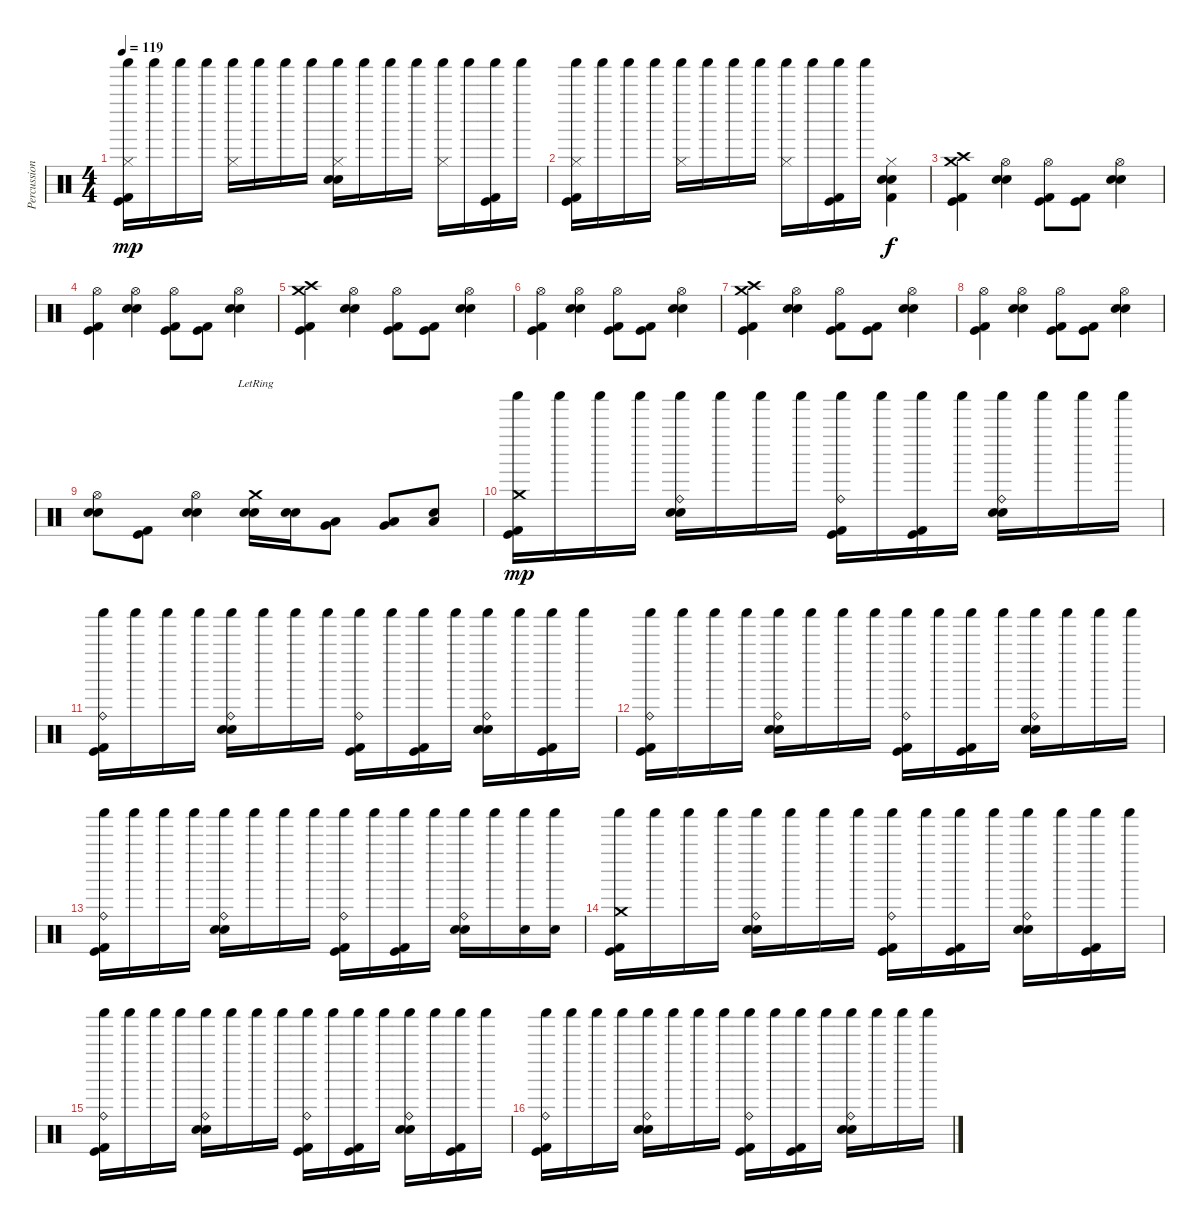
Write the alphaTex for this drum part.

\track ("Percussion" "Percussion") {instrument percussion}
\staff {score}
\articulation defaults
\ts (4 4)
\tempo 119
\clef neutral
\ks c
("Hi-Hat (closed)" "Kick (hit)" "Kick (hit) 2" "Shaker (hit)").16{dy mp} "Shaker (hit)".16 "Shaker (hit)".16 "Shaker (hit)".16 ("Hi-Hat (closed)" "Shaker (hit)").16 "Shaker (hit)".16 "Shaker (hit)".16 "Shaker (hit)".16 ("Hi-Hat (closed)" "Electric Snare (hit)" "Metronome (bell)" "Shaker (hit)").16 "Shaker (hit)".16 "Shaker (hit)".16 "Shaker (hit)".16 ("Hi-Hat (closed)" "Shaker (hit)").16 "Shaker (hit)".16 ("Kick (hit)" "Kick (hit) 2" "Shaker (hit)").16 "Shaker (hit)".16 |
("Hi-Hat (closed)" "Kick (hit)" "Kick (hit) 2" "Shaker (hit)").16 "Shaker (hit)".16 "Shaker (hit)".16 "Shaker (hit)".16 ("Hi-Hat (closed)" "Shaker (hit)").16 "Shaker (hit)".16 "Shaker (hit)".16 "Shaker (hit)".16 ("Hi-Hat (closed)" "Shaker (hit)").16 "Shaker (hit)".16 ("Kick (hit)" "Kick (hit) 2" "Shaker (hit)").16 "Shaker (hit)".16 ("Hi-Hat (closed)" "Electric Snare (hit)" "Metronome (bell)" "Kick (hit) 2").4{dy f} |
("Crash medium (hit)" "Crash high (hit)" "Kick (hit)" "Kick (hit) 2").4 ("Hi-Hat (open)" "Electric Snare (hit)" "Metronome (bell)").4 ("Hi-Hat (open)" "Kick (hit)" "Kick (hit) 2").8 ("Kick (hit)" "Kick (hit) 2").8 ("Hi-Hat (open)" "Electric Snare (hit)" "Metronome (bell)").4 |
("Hi-Hat (open)" "Kick (hit)" "Kick (hit) 2").4 ("Hi-Hat (open)" "Electric Snare (hit)" "Metronome (bell)").4 ("Hi-Hat (open)" "Kick (hit)" "Kick (hit) 2").8 ("Kick (hit)" "Kick (hit) 2").8 ("Hi-Hat (open)" "Electric Snare (hit)" "Metronome (bell)").4 |
("Crash medium (hit)" "Crash high (hit)" "Kick (hit)" "Kick (hit) 2").4 ("Hi-Hat (open)" "Electric Snare (hit)" "Metronome (bell)").4 ("Hi-Hat (open)" "Kick (hit)" "Kick (hit) 2").8 ("Kick (hit)" "Kick (hit) 2").8 ("Hi-Hat (open)" "Electric Snare (hit)" "Metronome (bell)").4 |
("Hi-Hat (open)" "Kick (hit)" "Kick (hit) 2").4 ("Hi-Hat (open)" "Electric Snare (hit)" "Metronome (bell)").4 ("Hi-Hat (open)" "Kick (hit)" "Kick (hit) 2").8 ("Kick (hit)" "Kick (hit) 2").8 ("Hi-Hat (open)" "Electric Snare (hit)" "Metronome (bell)").4 |
("Crash medium (hit)" "Crash high (hit)" "Kick (hit)" "Kick (hit) 2").4 ("Hi-Hat (open)" "Electric Snare (hit)" "Metronome (bell)").4 ("Hi-Hat (open)" "Kick (hit)" "Kick (hit) 2").8 ("Kick (hit)" "Kick (hit) 2").8 ("Hi-Hat (open)" "Electric Snare (hit)" "Metronome (bell)").4 |
("Hi-Hat (open)" "Kick (hit)" "Kick (hit) 2").4 ("Hi-Hat (open)" "Electric Snare (hit)" "Metronome (bell)").4 ("Hi-Hat (open)" "Kick (hit)" "Kick (hit) 2").8 ("Kick (hit)" "Kick (hit) 2").8 ("Hi-Hat (open)" "Electric Snare (hit)" "Metronome (bell)").4 |
("Hi-Hat (open)" "Electric Snare (hit)" "Metronome (bell)").8 ("Kick (hit)" "Kick (hit) 2").8 ("Hi-Hat (open)" "Electric Snare (hit)" "Metronome (bell)").4 ("Crash medium (hit)"{lr} "Electric Snare (hit)" "Metronome (bell)").16 ("Electric Snare (hit)" "Metronome (bell)").16 ("Low Tom (hit)" "Very Low Tom (hit)").8 ("Very Low Tom (hit)" "Low Floor Tom (hit)").8 ("Low Floor Tom (hit)" "Snare (hit)").8 |
("Crash medium (hit)" "Kick (hit)" "Kick (hit) 2" "Shaker (hit)").16{dy mp} "Shaker (hit)".16 "Shaker (hit)".16 "Shaker (hit)".16 ("Ride (bell)" "Electric Snare (hit)" "Metronome (bell)" "Shaker (hit)").16 "Shaker (hit)".16 "Shaker (hit)".16 "Shaker (hit)".16 ("Ride (bell)" "Kick (hit)" "Kick (hit) 2" "Shaker (hit)").16 "Shaker (hit)".16 ("Kick (hit)" "Kick (hit) 2" "Shaker (hit)").16 "Shaker (hit)".16 ("Ride (bell)" "Electric Snare (hit)" "Metronome (bell)" "Shaker (hit)").16 "Shaker (hit)".16 "Shaker (hit)".16 "Shaker (hit)".16 |
("Ride (bell)" "Kick (hit)" "Kick (hit) 2" "Shaker (hit)").16 "Shaker (hit)".16 "Shaker (hit)".16 "Shaker (hit)".16 ("Ride (bell)" "Electric Snare (hit)" "Metronome (bell)" "Shaker (hit)").16 "Shaker (hit)".16 "Shaker (hit)".16 "Shaker (hit)".16 ("Ride (bell)" "Kick (hit)" "Kick (hit) 2" "Shaker (hit)").16 "Shaker (hit)".16 ("Kick (hit)" "Kick (hit) 2" "Shaker (hit)").16 "Shaker (hit)".16 ("Ride (bell)" "Electric Snare (hit)" "Metronome (bell)" "Shaker (hit)").16 "Shaker (hit)".16 ("Kick (hit)" "Kick (hit) 2" "Shaker (hit)").16 "Shaker (hit)".16 |
("Ride (bell)" "Kick (hit)" "Kick (hit) 2" "Shaker (hit)").16 "Shaker (hit)".16 "Shaker (hit)".16 "Shaker (hit)".16 ("Ride (bell)" "Electric Snare (hit)" "Metronome (bell)" "Shaker (hit)").16 "Shaker (hit)".16 "Shaker (hit)".16 "Shaker (hit)".16 ("Ride (bell)" "Kick (hit)" "Kick (hit) 2" "Shaker (hit)").16 "Shaker (hit)".16 ("Kick (hit)" "Kick (hit) 2" "Shaker (hit)").16 "Shaker (hit)".16 ("Ride (bell)" "Electric Snare (hit)" "Metronome (bell)" "Shaker (hit)").16 "Shaker (hit)".16 "Shaker (hit)".16 "Shaker (hit)".16 |
("Ride (bell)" "Kick (hit)" "Kick (hit) 2" "Shaker (hit)").16 "Shaker (hit)".16 "Shaker (hit)".16 "Shaker (hit)".16 ("Ride (bell)" "Electric Snare (hit)" "Metronome (bell)" "Shaker (hit)").16 "Shaker (hit)".16 "Shaker (hit)".16 "Shaker (hit)".16 ("Ride (bell)" "Kick (hit)" "Kick (hit) 2" "Shaker (hit)").16 "Shaker (hit)".16 ("Kick (hit)" "Kick (hit) 2" "Shaker (hit)").16 "Shaker (hit)".16 ("Ride (bell)" "Electric Snare (hit)" "Metronome (bell)" "Shaker (hit)").16 "Shaker (hit)".16 ("Metronome (bell)" "Shaker (hit)").16 ("Metronome (bell)" "Shaker (hit)").16 |
("Crash medium (hit)" "Kick (hit)" "Kick (hit) 2" "Shaker (hit)").16 "Shaker (hit)".16 "Shaker (hit)".16 "Shaker (hit)".16 ("Ride (bell)" "Electric Snare (hit)" "Metronome (bell)" "Shaker (hit)").16 "Shaker (hit)".16 "Shaker (hit)".16 "Shaker (hit)".16 ("Ride (bell)" "Kick (hit)" "Kick (hit) 2" "Shaker (hit)").16 "Shaker (hit)".16 ("Kick (hit)" "Kick (hit) 2" "Shaker (hit)").16 "Shaker (hit)".16 ("Ride (bell)" "Electric Snare (hit)" "Metronome (bell)" "Shaker (hit)").16 "Shaker (hit)".16 ("Kick (hit)" "Kick (hit) 2" "Shaker (hit)").16 "Shaker (hit)".16 |
("Ride (bell)" "Kick (hit)" "Kick (hit) 2" "Shaker (hit)").16 "Shaker (hit)".16 "Shaker (hit)".16 "Shaker (hit)".16 ("Ride (bell)" "Electric Snare (hit)" "Metronome (bell)" "Shaker (hit)").16 "Shaker (hit)".16 "Shaker (hit)".16 "Shaker (hit)".16 ("Ride (bell)" "Kick (hit)" "Kick (hit) 2" "Shaker (hit)").16 "Shaker (hit)".16 ("Kick (hit)" "Kick (hit) 2" "Shaker (hit)").16 "Shaker (hit)".16 ("Ride (bell)" "Electric Snare (hit)" "Metronome (bell)" "Shaker (hit)").16 "Shaker (hit)".16 ("Kick (hit)" "Kick (hit) 2" "Shaker (hit)").16 "Shaker (hit)".16 |
("Ride (bell)" "Kick (hit)" "Kick (hit) 2" "Shaker (hit)").16 "Shaker (hit)".16 "Shaker (hit)".16 "Shaker (hit)".16 ("Ride (bell)" "Electric Snare (hit)" "Metronome (bell)" "Shaker (hit)").16 "Shaker (hit)".16 "Shaker (hit)".16 "Shaker (hit)".16 ("Ride (bell)" "Kick (hit)" "Kick (hit) 2" "Shaker (hit)").16 "Shaker (hit)".16 ("Kick (hit)" "Kick (hit) 2" "Shaker (hit)").16 "Shaker (hit)".16 ("Ride (bell)" "Electric Snare (hit)" "Metronome (bell)" "Shaker (hit)").16 "Shaker (hit)".16 "Shaker (hit)".16 "Shaker (hit)".16
